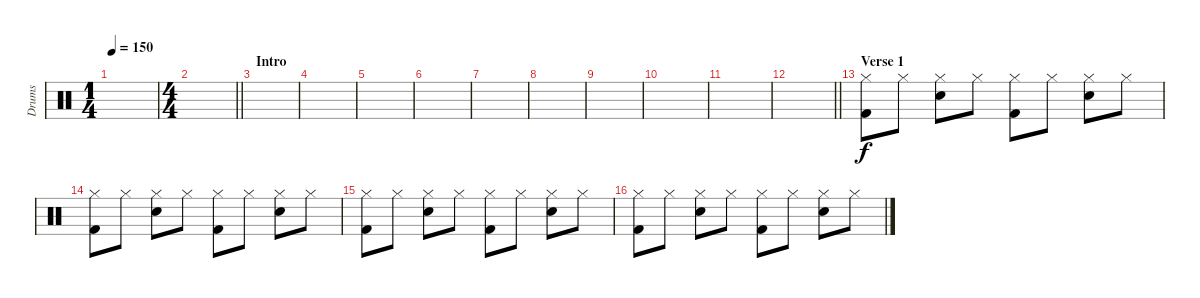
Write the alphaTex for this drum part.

\track ("Drums" "Drums") {instrument percussion}
\staff {score}
\articulation defaults
\ts (1 4)
\tempo 150
\clef neutral
\ks c
|
\ts (4 4)
\barLineRight lightlight
|
\section ("" "Intro")
|
|
|
|
|
|
|
|
|
\barLineRight lightlight
|
\section ("" "Verse 1")
("Hi-Hat (closed)" "Kick (hit) 2").8 "Hi-Hat (closed)".8 ("Hi-Hat (closed)" "Snare (hit) 2").8 "Hi-Hat (closed)".8 ("Hi-Hat (closed)" "Kick (hit) 2").8 "Hi-Hat (closed)".8 ("Hi-Hat (closed)" "Snare (hit) 2").8 "Hi-Hat (closed)".8 |
("Hi-Hat (closed)" "Kick (hit) 2").8 "Hi-Hat (closed)".8 ("Hi-Hat (closed)" "Snare (hit) 2").8 "Hi-Hat (closed)".8 ("Hi-Hat (closed)" "Kick (hit) 2").8 "Hi-Hat (closed)".8 ("Hi-Hat (closed)" "Snare (hit) 2").8 "Hi-Hat (closed)".8 |
("Hi-Hat (closed)" "Kick (hit) 2").8 "Hi-Hat (closed)".8 ("Hi-Hat (closed)" "Snare (hit) 2").8 "Hi-Hat (closed)".8 ("Hi-Hat (closed)" "Kick (hit) 2").8 "Hi-Hat (closed)".8 ("Hi-Hat (closed)" "Snare (hit) 2").8 "Hi-Hat (closed)".8 |
("Hi-Hat (closed)" "Kick (hit) 2").8 "Hi-Hat (closed)".8 ("Hi-Hat (closed)" "Snare (hit) 2").8 "Hi-Hat (closed)".8 ("Hi-Hat (closed)" "Kick (hit) 2").8 "Hi-Hat (closed)".8 ("Hi-Hat (closed)" "Snare (hit) 2").8 "Hi-Hat (closed)".8
